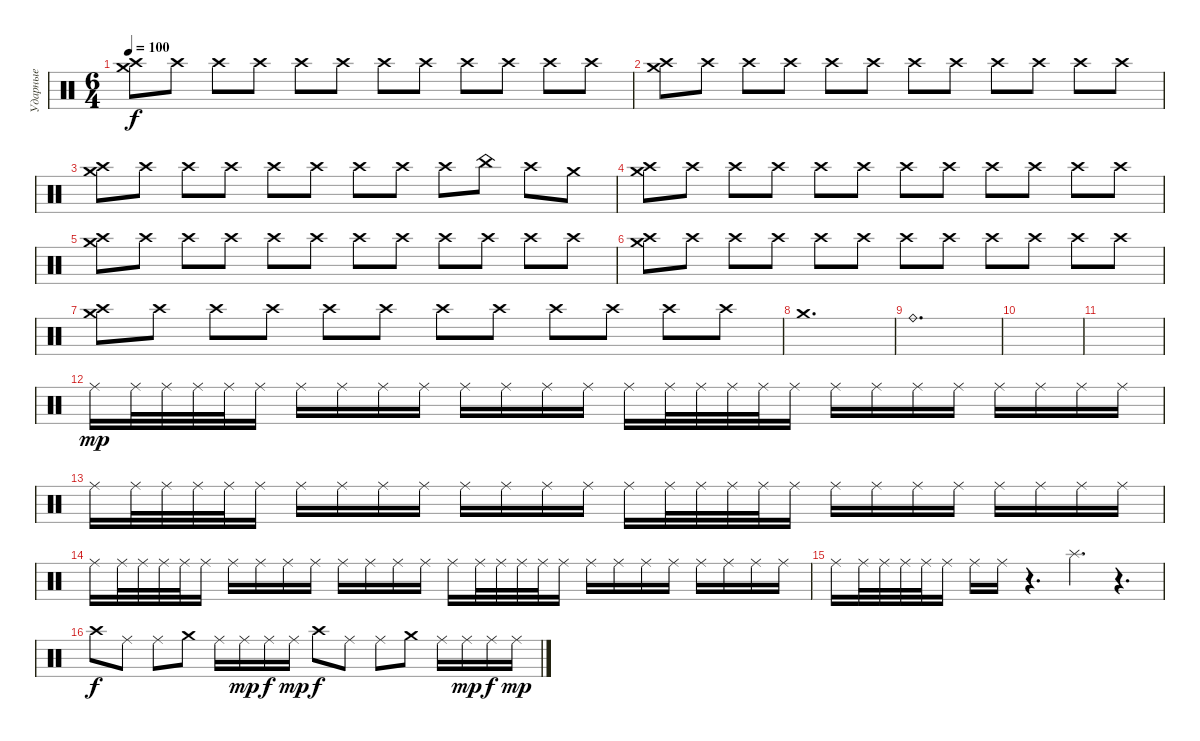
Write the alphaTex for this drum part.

\track ("Ударные" "Ударные") {instrument percussion}
\staff {score}
\articulation defaults
\ts (6 4)
\tempo 100
\clef neutral
\ks c
("Crash high (hit)" "Crash medium (hit)").8{dy f} "Crash high (hit)".8 "Crash high (hit)".8 "Crash high (hit)".8 "Crash high (hit)".8 "Crash high (hit)".8 "Crash high (hit)".8 "Crash high (hit)".8 "Crash high (hit)".8 "Crash high (hit)".8 "Crash high (hit)".8 "Crash high (hit)".8 |
("Crash high (hit)" "Crash medium (hit)").8 "Crash high (hit)".8 "Crash high (hit)".8 "Crash high (hit)".8 "Crash high (hit)".8 "Crash high (hit)".8 "Crash high (hit)".8 "Crash high (hit)".8 "Crash high (hit)".8 "Crash high (hit)".8 "Crash high (hit)".8 "Crash high (hit)".8 |
("Crash high (hit)" "Crash medium (hit)").8 "Crash high (hit)".8 "Crash high (hit)".8 "Crash high (hit)".8 "Crash high (hit)".8 "Crash high (hit)".8 "Crash high (hit)".8 "Crash high (hit)".8 "Crash high (hit)".8 "China (hit)".8 "Crash high (hit)".8 "Crash medium (hit)".8 |
("Crash high (hit)" "Crash medium (hit)").8 "Crash high (hit)".8 "Crash high (hit)".8 "Crash high (hit)".8 "Crash high (hit)".8 "Crash high (hit)".8 "Crash high (hit)".8 "Crash high (hit)".8 "Crash high (hit)".8 "Crash high (hit)".8 "Crash high (hit)".8 "Crash high (hit)".8 |
("Crash high (hit)" "Crash medium (hit)").8 "Crash high (hit)".8 "Crash high (hit)".8 "Crash high (hit)".8 "Crash high (hit)".8 "Crash high (hit)".8 "Crash high (hit)".8 "Crash high (hit)".8 "Crash high (hit)".8 "Crash high (hit)".8 "Crash high (hit)".8 "Crash high (hit)".8 |
("Crash high (hit)" "Crash medium (hit)").8 "Crash high (hit)".8 "Crash high (hit)".8 "Crash high (hit)".8 "Crash high (hit)".8 "Crash high (hit)".8 "Crash high (hit)".8 "Crash high (hit)".8 "Crash high (hit)".8 "Crash high (hit)".8 "Crash high (hit)".8 "Crash high (hit)".8 |
("Crash high (hit)" "Crash medium (hit)").8 "Crash high (hit)".8 "Crash high (hit)".8 "Crash high (hit)".8 "Crash high (hit)".8 "Crash high (hit)".8 "Crash high (hit)".8 "Crash high (hit)".8 "Crash high (hit)".8 "Crash high (hit)".8 "Crash high (hit)".8 "Crash high (hit)".8 |
"Crash medium (hit)".1{d} |
"Ride (bell)".1{d} |
|
|
"Ride (middle)".16{dy mp} "Ride (middle)".32 "Ride (middle)".32 "Ride (middle)".32 "Ride (middle)".32 "Ride (middle)".16 "Ride (middle)".16 "Ride (middle)".16 "Ride (middle)".16 "Ride (middle)".16 "Ride (middle)".16 "Ride (middle)".16 "Ride (middle)".16 "Ride (middle)".16 "Ride (middle)".16 "Ride (middle)".32 "Ride (middle)".32 "Ride (middle)".32 "Ride (middle)".32 "Ride (middle)".16 "Ride (middle)".16 "Ride (middle)".16 "Ride (middle)".16 "Ride (middle)".16 "Ride (middle)".16 "Ride (middle)".16 "Ride (middle)".16 "Ride (middle)".16 |
"Ride (middle)".16 "Ride (middle)".32 "Ride (middle)".32 "Ride (middle)".32 "Ride (middle)".32 "Ride (middle)".16 "Ride (middle)".16 "Ride (middle)".16 "Ride (middle)".16 "Ride (middle)".16 "Ride (middle)".16 "Ride (middle)".16 "Ride (middle)".16 "Ride (middle)".16 "Ride (middle)".16 "Ride (middle)".32 "Ride (middle)".32 "Ride (middle)".32 "Ride (middle)".32 "Ride (middle)".16 "Ride (middle)".16 "Ride (middle)".16 "Ride (middle)".16 "Ride (middle)".16 "Ride (middle)".16 "Ride (middle)".16 "Ride (middle)".16 "Ride (middle)".16 |
"Ride (middle)".16 "Ride (middle)".32 "Ride (middle)".32 "Ride (middle)".32 "Ride (middle)".32 "Ride (middle)".16 "Ride (middle)".16 "Ride (middle)".16 "Ride (middle)".16 "Ride (middle)".16 "Ride (middle)".16 "Ride (middle)".16 "Ride (middle)".16 "Ride (middle)".16 "Ride (middle)".16 "Ride (middle)".32 "Ride (middle)".32 "Ride (middle)".32 "Ride (middle)".32 "Ride (middle)".16 "Ride (middle)".16 "Ride (middle)".16 "Ride (middle)".16 "Ride (middle)".16 "Ride (middle)".16 "Ride (middle)".16 "Ride (middle)".16 "Ride (middle)".16 |
"Ride (middle)".16 "Ride (middle)".32 "Ride (middle)".32 "Ride (middle)".32 "Ride (middle)".32 "Ride (middle)".16 "Ride (middle)".16 "Ride (middle)".16 r.4{d} "Splash (hit)".4{d} r.4{d} |
"Crash high (hit)".8{dy f} "Ride (middle)".8 "Ride (middle)".8 "Crash medium (hit)".8 "Ride (middle)".16 "Ride (middle)".16{dy mp} "Ride (middle)".16{dy f} "Ride (middle)".16{dy mp} "Crash high (hit)".8{dy f} "Ride (middle)".8 "Ride (middle)".8 "Crash medium (hit)".8 "Ride (middle)".16 "Ride (middle)".16{dy mp} "Ride (middle)".16{dy f} "Ride (middle)".16{dy mp}
